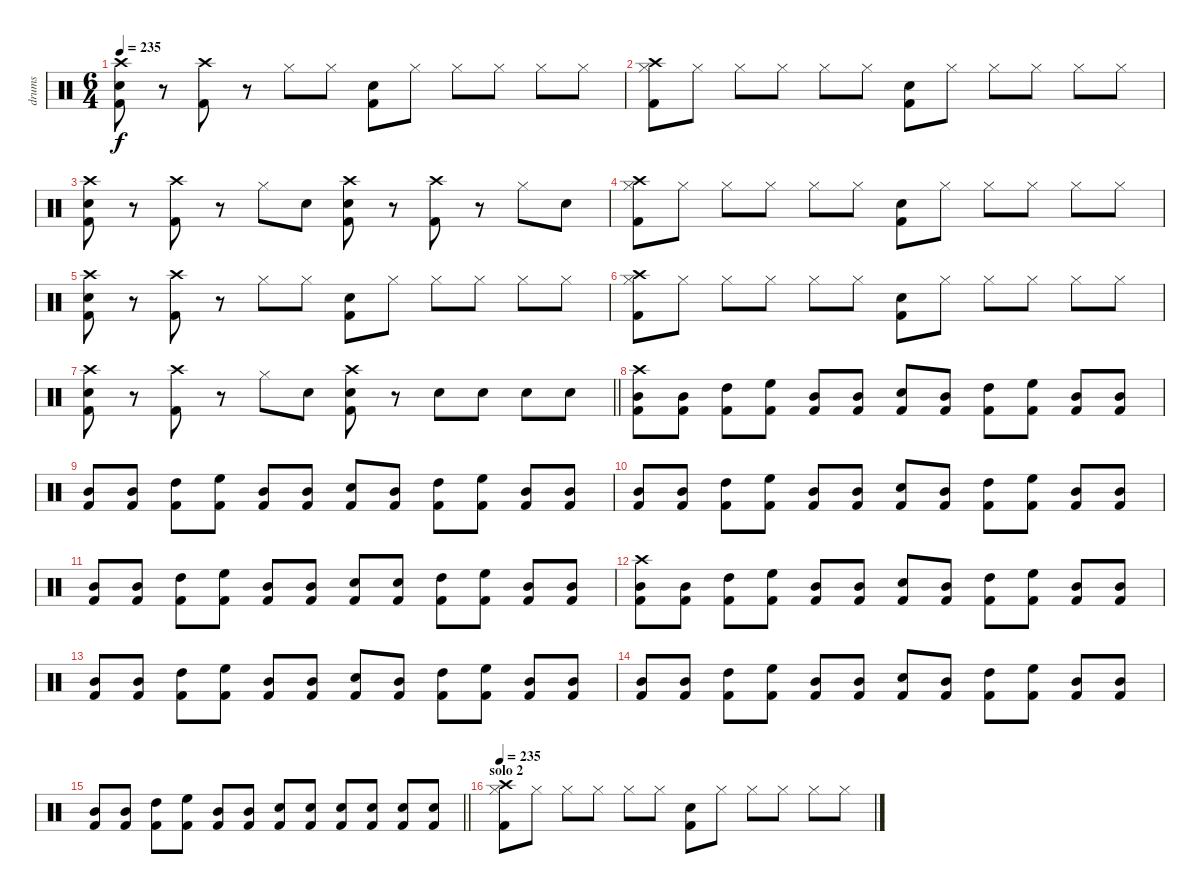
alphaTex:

\track ("drums" "drums") {instrument percussion}
\staff {score}
\articulation defaults
\ts (6 4)
\tempo 235
\clef neutral
\ks c
("Crash high (hit)" "Snare (hit) 2" "Kick (hit) 2").8{dy f} r.8 ("Crash high (hit)" "Kick (hit) 2").8 r.8 "Hi-Hat (closed)".8 "Hi-Hat (closed)".8 ("Snare (hit) 2" "Kick (hit) 2").8 "Hi-Hat (closed)".8 "Hi-Hat (closed)".8 "Hi-Hat (closed)".8 "Hi-Hat (closed)".8 "Hi-Hat (closed)".8 |
("Crash high (hit)" "Hi-Hat (closed)" "Kick (hit) 2").8 "Hi-Hat (closed)".8 "Hi-Hat (closed)".8 "Hi-Hat (closed)".8 "Hi-Hat (closed)".8 "Hi-Hat (closed)".8 ("Snare (hit) 2" "Kick (hit) 2").8 "Hi-Hat (closed)".8 "Hi-Hat (closed)".8 "Hi-Hat (closed)".8 "Hi-Hat (closed)".8 "Hi-Hat (closed)".8 |
("Crash high (hit)" "Snare (hit) 2" "Kick (hit) 2").8 r.8 ("Crash high (hit)" "Kick (hit) 2").8 r.8 "Hi-Hat (closed)".8 "Snare (hit) 2".8 ("Crash high (hit)" "Snare (hit) 2" "Kick (hit) 2").8 r.8 ("Crash high (hit)" "Kick (hit) 2").8 r.8 "Hi-Hat (closed)".8 "Snare (hit) 2".8 |
("Crash high (hit)" "Hi-Hat (closed)" "Kick (hit) 2").8 "Hi-Hat (closed)".8 "Hi-Hat (closed)".8 "Hi-Hat (closed)".8 "Hi-Hat (closed)".8 "Hi-Hat (closed)".8 ("Snare (hit) 2" "Kick (hit) 2").8 "Hi-Hat (closed)".8 "Hi-Hat (closed)".8 "Hi-Hat (closed)".8 "Hi-Hat (closed)".8 "Hi-Hat (closed)".8 |
("Crash high (hit)" "Snare (hit) 2" "Kick (hit) 2").8 r.8 ("Crash high (hit)" "Kick (hit) 2").8 r.8 "Hi-Hat (closed)".8 "Hi-Hat (closed)".8 ("Snare (hit) 2" "Kick (hit) 2").8 "Hi-Hat (closed)".8 "Hi-Hat (closed)".8 "Hi-Hat (closed)".8 "Hi-Hat (closed)".8 "Hi-Hat (closed)".8 |
("Crash high (hit)" "Hi-Hat (closed)" "Kick (hit) 2").8 "Hi-Hat (closed)".8 "Hi-Hat (closed)".8 "Hi-Hat (closed)".8 "Hi-Hat (closed)".8 "Hi-Hat (closed)".8 ("Snare (hit) 2" "Kick (hit) 2").8 "Hi-Hat (closed)".8 "Hi-Hat (closed)".8 "Hi-Hat (closed)".8 "Hi-Hat (closed)".8 "Hi-Hat (closed)".8 |
\barLineRight lightlight
("Crash high (hit)" "Snare (hit) 2" "Kick (hit) 2").8 r.8 ("Crash high (hit)" "Kick (hit) 2").8 r.8 "Hi-Hat (closed)".8 "Snare (hit) 2".8 ("Crash high (hit)" "Snare (hit) 2" "Kick (hit) 2").8 r.8 "Snare (hit) 2".8 "Snare (hit) 2".8 "Snare (hit) 2".8 "Snare (hit) 2".8 |
("Crash high (hit)" "Mid Tom (hit)" "Kick (hit) 2").8 ("Mid Tom (hit)" "Kick (hit) 2").8 ("High Tom (hit)" "Kick (hit) 2").8 ("High Floor Tom (hit)" "Kick (hit) 2").8 ("Mid Tom (hit)" "Kick (hit) 2").8 ("Mid Tom (hit)" "Kick (hit) 2").8 ("Snare (hit) 2" "Kick (hit) 2").8 ("Mid Tom (hit)" "Kick (hit) 2").8 ("High Tom (hit)" "Kick (hit) 2").8 ("High Floor Tom (hit)" "Kick (hit) 2").8 ("Mid Tom (hit)" "Kick (hit) 2").8 ("Mid Tom (hit)" "Kick (hit) 2").8 |
("Mid Tom (hit)" "Kick (hit) 2").8 ("Mid Tom (hit)" "Kick (hit) 2").8 ("High Tom (hit)" "Kick (hit) 2").8 ("High Floor Tom (hit)" "Kick (hit) 2").8 ("Mid Tom (hit)" "Kick (hit) 2").8 ("Mid Tom (hit)" "Kick (hit) 2").8 ("Snare (hit) 2" "Kick (hit) 2").8 ("Mid Tom (hit)" "Kick (hit) 2").8 ("High Tom (hit)" "Kick (hit) 2").8 ("High Floor Tom (hit)" "Kick (hit) 2").8 ("Mid Tom (hit)" "Kick (hit) 2").8 ("Mid Tom (hit)" "Kick (hit) 2").8 |
("Mid Tom (hit)" "Kick (hit) 2").8 ("Mid Tom (hit)" "Kick (hit) 2").8 ("High Tom (hit)" "Kick (hit) 2").8 ("High Floor Tom (hit)" "Kick (hit) 2").8 ("Mid Tom (hit)" "Kick (hit) 2").8 ("Mid Tom (hit)" "Kick (hit) 2").8 ("Snare (hit) 2" "Kick (hit) 2").8 ("Mid Tom (hit)" "Kick (hit) 2").8 ("High Tom (hit)" "Kick (hit) 2").8 ("High Floor Tom (hit)" "Kick (hit) 2").8 ("Mid Tom (hit)" "Kick (hit) 2").8 ("Mid Tom (hit)" "Kick (hit) 2").8 |
("Mid Tom (hit)" "Kick (hit) 2").8 ("Mid Tom (hit)" "Kick (hit) 2").8 ("High Tom (hit)" "Kick (hit) 2").8 ("High Floor Tom (hit)" "Kick (hit) 2").8 ("Mid Tom (hit)" "Kick (hit) 2").8 ("Mid Tom (hit)" "Kick (hit) 2").8 ("Snare (hit) 2" "Kick (hit) 2").8 ("Snare (hit) 2" "Kick (hit) 2").8 ("High Tom (hit)" "Kick (hit) 2").8 ("High Floor Tom (hit)" "Kick (hit) 2").8 ("Mid Tom (hit)" "Kick (hit) 2").8 ("Mid Tom (hit)" "Kick (hit) 2").8 |
("Crash high (hit)" "Mid Tom (hit)" "Kick (hit) 2").8 ("Mid Tom (hit)" "Kick (hit) 2").8 ("High Tom (hit)" "Kick (hit) 2").8 ("High Floor Tom (hit)" "Kick (hit) 2").8 ("Mid Tom (hit)" "Kick (hit) 2").8 ("Mid Tom (hit)" "Kick (hit) 2").8 ("Snare (hit) 2" "Kick (hit) 2").8 ("Mid Tom (hit)" "Kick (hit) 2").8 ("High Tom (hit)" "Kick (hit) 2").8 ("High Floor Tom (hit)" "Kick (hit) 2").8 ("Mid Tom (hit)" "Kick (hit) 2").8 ("Mid Tom (hit)" "Kick (hit) 2").8 |
("Mid Tom (hit)" "Kick (hit) 2").8 ("Mid Tom (hit)" "Kick (hit) 2").8 ("High Tom (hit)" "Kick (hit) 2").8 ("High Floor Tom (hit)" "Kick (hit) 2").8 ("Mid Tom (hit)" "Kick (hit) 2").8 ("Mid Tom (hit)" "Kick (hit) 2").8 ("Snare (hit) 2" "Kick (hit) 2").8 ("Mid Tom (hit)" "Kick (hit) 2").8 ("High Tom (hit)" "Kick (hit) 2").8 ("High Floor Tom (hit)" "Kick (hit) 2").8 ("Mid Tom (hit)" "Kick (hit) 2").8 ("Mid Tom (hit)" "Kick (hit) 2").8 |
("Mid Tom (hit)" "Kick (hit) 2").8 ("Mid Tom (hit)" "Kick (hit) 2").8 ("High Tom (hit)" "Kick (hit) 2").8 ("High Floor Tom (hit)" "Kick (hit) 2").8 ("Mid Tom (hit)" "Kick (hit) 2").8 ("Mid Tom (hit)" "Kick (hit) 2").8 ("Snare (hit) 2" "Kick (hit) 2").8 ("Mid Tom (hit)" "Kick (hit) 2").8 ("High Tom (hit)" "Kick (hit) 2").8 ("High Floor Tom (hit)" "Kick (hit) 2").8 ("Mid Tom (hit)" "Kick (hit) 2").8 ("Mid Tom (hit)" "Kick (hit) 2").8 |
\barLineRight lightlight
("Mid Tom (hit)" "Kick (hit) 2").8 ("Mid Tom (hit)" "Kick (hit) 2").8 ("High Tom (hit)" "Kick (hit) 2").8 ("High Floor Tom (hit)" "Kick (hit) 2").8 ("Mid Tom (hit)" "Kick (hit) 2").8 ("Mid Tom (hit)" "Kick (hit) 2").8 ("Snare (hit) 2" "Kick (hit) 2").8 ("Snare (hit) 2" "Kick (hit) 2").8 ("Snare (hit) 2" "Kick (hit) 2").8 ("Snare (hit) 2" "Kick (hit) 2").8 ("Snare (hit) 2" "Kick (hit) 2").8 ("Snare (hit) 2" "Kick (hit) 2").8 |
\section ("" "solo 2")
\tempo 235
("Crash high (hit)" "Hi-Hat (closed)" "Kick (hit) 2").8 "Hi-Hat (closed)".8 "Hi-Hat (closed)".8 "Hi-Hat (closed)".8 "Hi-Hat (closed)".8 "Hi-Hat (closed)".8 ("Snare (hit) 2" "Kick (hit) 2").8 "Hi-Hat (closed)".8 "Hi-Hat (closed)".8 "Hi-Hat (closed)".8 "Hi-Hat (closed)".8 "Hi-Hat (closed)".8
